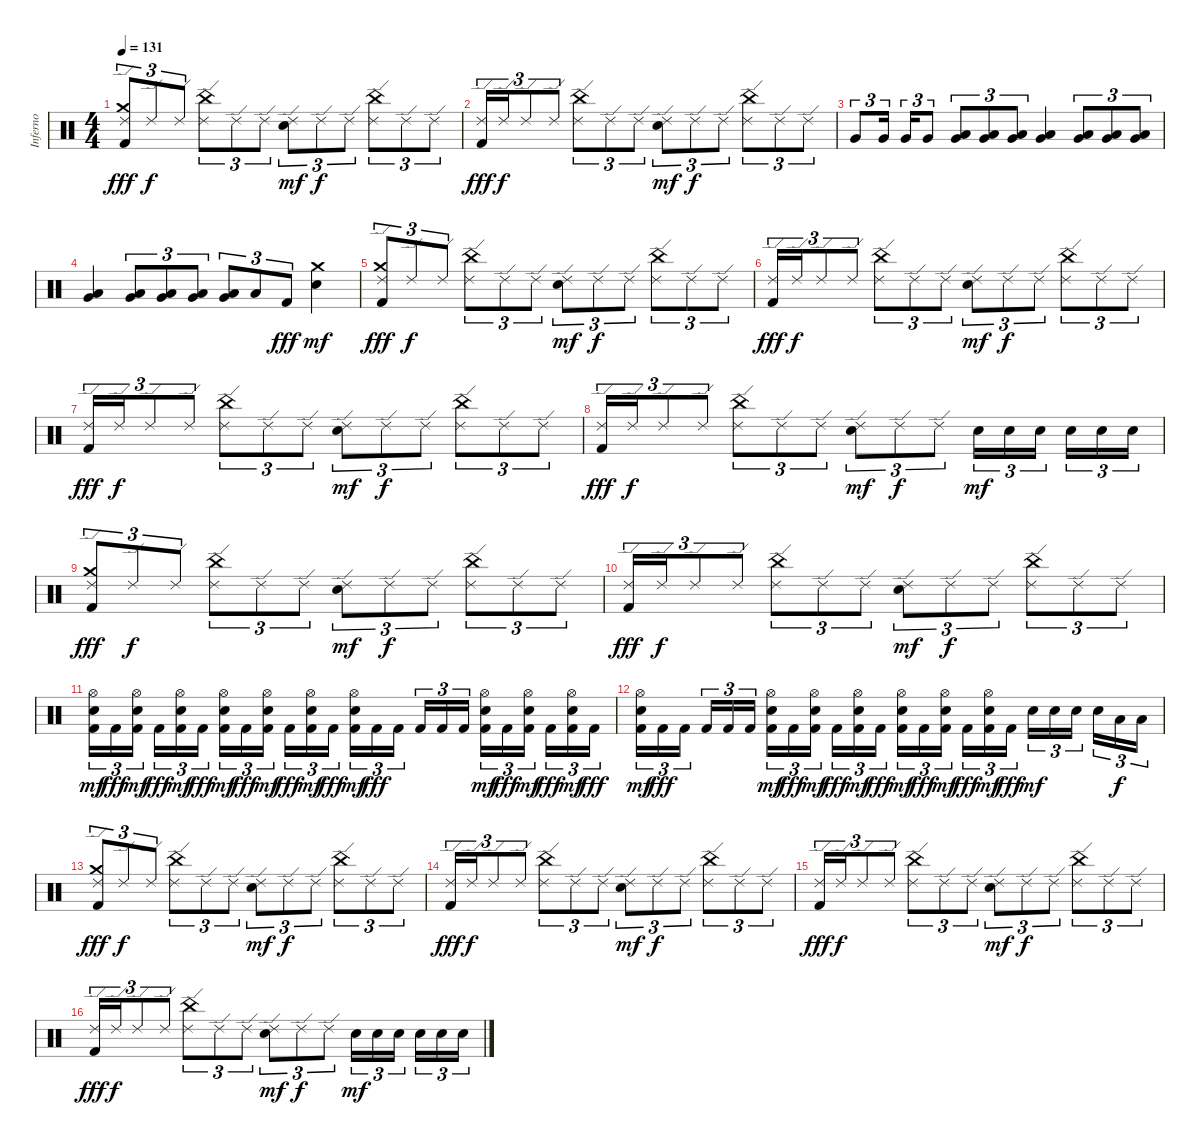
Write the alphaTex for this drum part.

\track ("Inferno" "Inferno") {instrument percussion}
\staff {score}
\articulation defaults
\ts (4 4)
\tempo 131
\clef neutral
\ks c
("Kick (hit) 2" "Crash medium (hit)" "Ride (edge) 2").8{tu (3 2) dy fff} "Ride (edge) 2".8{tu (3 2) dy f} "Ride (edge) 2".8{tu (3 2)} ("Ride (edge) 2" "China (hit)").8{tu (3 2)} "Ride (edge) 2".8{tu (3 2)} "Ride (edge) 2".8{tu (3 2)} ("Electric Snare (hit)" "Ride (edge) 2").8{tu (3 2) dy mf} "Ride (edge) 2".8{tu (3 2) dy f} "Ride (edge) 2".8{tu (3 2)} ("Ride (edge) 2" "China (hit)").8{tu (3 2)} "Ride (edge) 2".8{tu (3 2)} "Ride (edge) 2".8{tu (3 2)} |
("Kick (hit) 2" "Ride (edge) 2").16{tu (3 2) dy fff} "Ride (edge) 2".16{tu (3 2) dy f} "Ride (edge) 2".8{tu (3 2)} "Ride (edge) 2".8{tu (3 2)} ("Ride (edge) 2" "China (hit)").8{tu (3 2)} "Ride (edge) 2".8{tu (3 2)} "Ride (edge) 2".8{tu (3 2)} ("Electric Snare (hit)" "Ride (edge) 2").8{tu (3 2) dy mf} "Ride (edge) 2".8{tu (3 2) dy f} "Ride (edge) 2".8{tu (3 2)} ("Ride (edge) 2" "China (hit)").8{tu (3 2)} "Ride (edge) 2".8{tu (3 2)} "Ride (edge) 2".8{tu (3 2)} |
"Very Low Tom (hit)".8{tu (3 2)} "Very Low Tom (hit)".16{tu (3 2) beam splitsecondary} "Very Low Tom (hit)".16{tu (3 2)} "Very Low Tom (hit)".8{tu (3 2)} ("Very Low Tom (hit)" "Low Floor Tom (hit)").8{tu (3 2)} ("Very Low Tom (hit)" "Low Floor Tom (hit)").8{tu (3 2)} ("Very Low Tom (hit)" "Low Floor Tom (hit)").8{tu (3 2)} ("Very Low Tom (hit)" "Low Floor Tom (hit)").4 ("Very Low Tom (hit)" "Low Floor Tom (hit)").8{tu (3 2)} ("Very Low Tom (hit)" "Low Floor Tom (hit)").8{tu (3 2)} ("Very Low Tom (hit)" "Low Floor Tom (hit)").8{tu (3 2)} |
("Very Low Tom (hit)" "Low Floor Tom (hit)").4 ("Very Low Tom (hit)" "Low Floor Tom (hit)").8{tu (3 2)} ("Very Low Tom (hit)" "Low Floor Tom (hit)").8{tu (3 2)} ("Very Low Tom (hit)" "Low Floor Tom (hit)").8{tu (3 2)} ("Very Low Tom (hit)" "Low Floor Tom (hit)").8{tu (3 2)} "Low Floor Tom (hit)".8{tu (3 2)} "Kick (hit) 2".8{tu (3 2) dy fff} ("Electric Snare (hit)" "Crash medium (hit)").4{dy mf} |
("Kick (hit) 2" "Crash medium (hit)" "Ride (edge) 2").8{tu (3 2) dy fff} "Ride (edge) 2".8{tu (3 2) dy f} "Ride (edge) 2".8{tu (3 2)} ("Ride (edge) 2" "China (hit)").8{tu (3 2)} "Ride (edge) 2".8{tu (3 2)} "Ride (edge) 2".8{tu (3 2)} ("Electric Snare (hit)" "Ride (edge) 2").8{tu (3 2) dy mf} "Ride (edge) 2".8{tu (3 2) dy f} "Ride (edge) 2".8{tu (3 2)} ("Ride (edge) 2" "China (hit)").8{tu (3 2)} "Ride (edge) 2".8{tu (3 2)} "Ride (edge) 2".8{tu (3 2)} |
("Kick (hit) 2" "Ride (edge) 2").16{tu (3 2) dy fff} "Ride (edge) 2".16{tu (3 2) dy f} "Ride (edge) 2".8{tu (3 2)} "Ride (edge) 2".8{tu (3 2)} ("Ride (edge) 2" "China (hit)").8{tu (3 2)} "Ride (edge) 2".8{tu (3 2)} "Ride (edge) 2".8{tu (3 2)} ("Electric Snare (hit)" "Ride (edge) 2").8{tu (3 2) dy mf} "Ride (edge) 2".8{tu (3 2) dy f} "Ride (edge) 2".8{tu (3 2)} ("Ride (edge) 2" "China (hit)").8{tu (3 2)} "Ride (edge) 2".8{tu (3 2)} "Ride (edge) 2".8{tu (3 2)} |
("Kick (hit) 2" "Ride (edge) 2").16{tu (3 2) dy fff} "Ride (edge) 2".16{tu (3 2) dy f} "Ride (edge) 2".8{tu (3 2)} "Ride (edge) 2".8{tu (3 2)} ("Ride (edge) 2" "China (hit)").8{tu (3 2)} "Ride (edge) 2".8{tu (3 2)} "Ride (edge) 2".8{tu (3 2)} ("Electric Snare (hit)" "Ride (edge) 2").8{tu (3 2) dy mf} "Ride (edge) 2".8{tu (3 2) dy f} "Ride (edge) 2".8{tu (3 2)} ("Ride (edge) 2" "China (hit)").8{tu (3 2)} "Ride (edge) 2".8{tu (3 2)} "Ride (edge) 2".8{tu (3 2)} |
("Kick (hit) 2" "Ride (edge) 2").16{tu (3 2) dy fff} "Ride (edge) 2".16{tu (3 2) dy f} "Ride (edge) 2".8{tu (3 2)} "Ride (edge) 2".8{tu (3 2)} ("Ride (edge) 2" "China (hit)").8{tu (3 2)} "Ride (edge) 2".8{tu (3 2)} "Ride (edge) 2".8{tu (3 2)} ("Electric Snare (hit)" "Ride (edge) 2").8{tu (3 2) dy mf} "Ride (edge) 2".8{tu (3 2) dy f} "Ride (edge) 2".8{tu (3 2)} "Electric Snare (hit)".16{tu (3 2) dy mf} "Electric Snare (hit)".16{tu (3 2)} "Electric Snare (hit)".16{tu (3 2) beam splitsecondary} "Electric Snare (hit)".16{tu (3 2)} "Electric Snare (hit)".16{tu (3 2)} "Electric Snare (hit)".16{tu (3 2)} |
("Kick (hit) 2" "Crash medium (hit)" "Ride (edge) 2").8{tu (3 2) dy fff} "Ride (edge) 2".8{tu (3 2) dy f} "Ride (edge) 2".8{tu (3 2)} ("Ride (edge) 2" "China (hit)").8{tu (3 2)} "Ride (edge) 2".8{tu (3 2)} "Ride (edge) 2".8{tu (3 2)} ("Electric Snare (hit)" "Ride (edge) 2").8{tu (3 2) dy mf} "Ride (edge) 2".8{tu (3 2) dy f} "Ride (edge) 2".8{tu (3 2)} ("Ride (edge) 2" "China (hit)").8{tu (3 2)} "Ride (edge) 2".8{tu (3 2)} "Ride (edge) 2".8{tu (3 2)} |
("Kick (hit) 2" "Ride (edge) 2").16{tu (3 2) dy fff} "Ride (edge) 2".16{tu (3 2) dy f} "Ride (edge) 2".8{tu (3 2)} "Ride (edge) 2".8{tu (3 2)} ("Ride (edge) 2" "China (hit)").8{tu (3 2)} "Ride (edge) 2".8{tu (3 2)} "Ride (edge) 2".8{tu (3 2)} ("Electric Snare (hit)" "Ride (edge) 2").8{tu (3 2) dy mf} "Ride (edge) 2".8{tu (3 2) dy f} "Ride (edge) 2".8{tu (3 2)} ("Ride (edge) 2" "China (hit)").8{tu (3 2)} "Ride (edge) 2".8{tu (3 2)} "Ride (edge) 2".8{tu (3 2)} |
("Kick (hit) 2" "Electric Snare (hit)" "Hi-Hat (open)").16{tu (3 2) dy mf} "Kick (hit) 2".16{tu (3 2) dy fff} ("Kick (hit) 2" "Electric Snare (hit)" "Hi-Hat (open)").16{tu (3 2) dy mf beam splitsecondary} "Kick (hit) 2".16{tu (3 2) dy fff} ("Kick (hit) 2" "Electric Snare (hit)" "Hi-Hat (open)").16{tu (3 2) dy mf} "Kick (hit) 2".16{tu (3 2) dy fff} ("Kick (hit) 2" "Electric Snare (hit)" "Hi-Hat (open)").16{tu (3 2) dy mf} "Kick (hit) 2".16{tu (3 2) dy fff} ("Kick (hit) 2" "Electric Snare (hit)" "Hi-Hat (open)").16{tu (3 2) dy mf beam splitsecondary} "Kick (hit) 2".16{tu (3 2) dy fff} ("Kick (hit) 2" "Electric Snare (hit)" "Hi-Hat (open)").16{tu (3 2) dy mf} "Kick (hit) 2".16{tu (3 2) dy fff} ("Kick (hit) 2" "Electric Snare (hit)" "Hi-Hat (open)").16{tu (3 2) dy mf} "Kick (hit) 2".16{tu (3 2) dy fff} "Kick (hit) 2".16{tu (3 2) beam splitsecondary} "Kick (hit) 2".16{tu (3 2)} "Kick (hit) 2".16{tu (3 2)} "Kick (hit) 2".16{tu (3 2)} ("Kick (hit) 2" "Electric Snare (hit)" "Hi-Hat (open)").16{tu (3 2) dy mf} "Kick (hit) 2".16{tu (3 2) dy fff} ("Kick (hit) 2" "Electric Snare (hit)" "Hi-Hat (open)").16{tu (3 2) dy mf beam splitsecondary} "Kick (hit) 2".16{tu (3 2) dy fff} ("Kick (hit) 2" "Electric Snare (hit)" "Hi-Hat (open)").16{tu (3 2) dy mf} "Kick (hit) 2".16{tu (3 2) dy fff} |
("Kick (hit) 2" "Electric Snare (hit)" "Hi-Hat (open)").16{tu (3 2) dy mf} "Kick (hit) 2".16{tu (3 2) dy fff} "Kick (hit) 2".16{tu (3 2) beam splitsecondary} "Kick (hit) 2".16{tu (3 2)} "Kick (hit) 2".16{tu (3 2)} "Kick (hit) 2".16{tu (3 2)} ("Kick (hit) 2" "Electric Snare (hit)" "Hi-Hat (open)").16{tu (3 2) dy mf} "Kick (hit) 2".16{tu (3 2) dy fff} ("Kick (hit) 2" "Electric Snare (hit)" "Hi-Hat (open)").16{tu (3 2) dy mf beam splitsecondary} "Kick (hit) 2".16{tu (3 2) dy fff} ("Kick (hit) 2" "Electric Snare (hit)" "Hi-Hat (open)").16{tu (3 2) dy mf} "Kick (hit) 2".16{tu (3 2) dy fff} ("Kick (hit) 2" "Electric Snare (hit)" "Hi-Hat (open)").16{tu (3 2) dy mf} "Kick (hit) 2".16{tu (3 2) dy fff} ("Kick (hit) 2" "Electric Snare (hit)" "Hi-Hat (open)").16{tu (3 2) dy mf beam splitsecondary} "Kick (hit) 2".16{tu (3 2) dy fff} ("Kick (hit) 2" "Electric Snare (hit)" "Hi-Hat (open)").16{tu (3 2) dy mf} "Kick (hit) 2".16{tu (3 2) dy fff} "Electric Snare (hit)".16{tu (3 2) dy mf} "Electric Snare (hit)".16{tu (3 2)} "Electric Snare (hit)".16{tu (3 2) beam splitsecondary} "Electric Snare (hit)".16{tu (3 2)} "Low Tom (hit)".16{tu (3 2) dy f} "Low Tom (hit)".16{tu (3 2)} |
("Kick (hit) 2" "Crash medium (hit)" "Ride (edge) 2").8{tu (3 2) dy fff} "Ride (edge) 2".8{tu (3 2) dy f} "Ride (edge) 2".8{tu (3 2)} ("Ride (edge) 2" "China (hit)").8{tu (3 2)} "Ride (edge) 2".8{tu (3 2)} "Ride (edge) 2".8{tu (3 2)} ("Electric Snare (hit)" "Ride (edge) 2").8{tu (3 2) dy mf} "Ride (edge) 2".8{tu (3 2) dy f} "Ride (edge) 2".8{tu (3 2)} ("Ride (edge) 2" "China (hit)").8{tu (3 2)} "Ride (edge) 2".8{tu (3 2)} "Ride (edge) 2".8{tu (3 2)} |
("Kick (hit) 2" "Ride (edge) 2").16{tu (3 2) dy fff} "Ride (edge) 2".16{tu (3 2) dy f} "Ride (edge) 2".8{tu (3 2)} "Ride (edge) 2".8{tu (3 2)} ("Ride (edge) 2" "China (hit)").8{tu (3 2)} "Ride (edge) 2".8{tu (3 2)} "Ride (edge) 2".8{tu (3 2)} ("Electric Snare (hit)" "Ride (edge) 2").8{tu (3 2) dy mf} "Ride (edge) 2".8{tu (3 2) dy f} "Ride (edge) 2".8{tu (3 2)} ("Ride (edge) 2" "China (hit)").8{tu (3 2)} "Ride (edge) 2".8{tu (3 2)} "Ride (edge) 2".8{tu (3 2)} |
("Kick (hit) 2" "Ride (edge) 2").16{tu (3 2) dy fff} "Ride (edge) 2".16{tu (3 2) dy f} "Ride (edge) 2".8{tu (3 2)} "Ride (edge) 2".8{tu (3 2)} ("Ride (edge) 2" "China (hit)").8{tu (3 2)} "Ride (edge) 2".8{tu (3 2)} "Ride (edge) 2".8{tu (3 2)} ("Electric Snare (hit)" "Ride (edge) 2").8{tu (3 2) dy mf} "Ride (edge) 2".8{tu (3 2) dy f} "Ride (edge) 2".8{tu (3 2)} ("Ride (edge) 2" "China (hit)").8{tu (3 2)} "Ride (edge) 2".8{tu (3 2)} "Ride (edge) 2".8{tu (3 2)} |
("Kick (hit) 2" "Ride (edge) 2").16{tu (3 2) dy fff} "Ride (edge) 2".16{tu (3 2) dy f} "Ride (edge) 2".8{tu (3 2)} "Ride (edge) 2".8{tu (3 2)} ("Ride (edge) 2" "China (hit)").8{tu (3 2)} "Ride (edge) 2".8{tu (3 2)} "Ride (edge) 2".8{tu (3 2)} ("Electric Snare (hit)" "Ride (edge) 2").8{tu (3 2) dy mf} "Ride (edge) 2".8{tu (3 2) dy f} "Ride (edge) 2".8{tu (3 2)} "Electric Snare (hit)".16{tu (3 2) dy mf} "Electric Snare (hit)".16{tu (3 2)} "Electric Snare (hit)".16{tu (3 2) beam splitsecondary} "Electric Snare (hit)".16{tu (3 2)} "Electric Snare (hit)".16{tu (3 2)} "Electric Snare (hit)".16{tu (3 2)}
